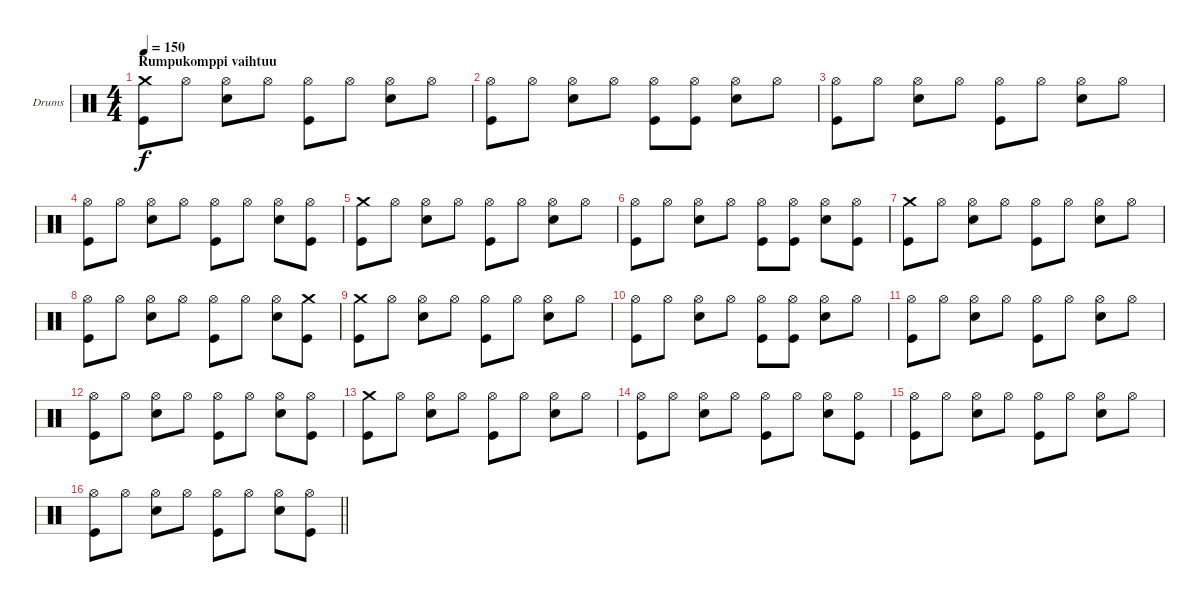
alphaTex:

\bracketExtendMode groupsimilarinstruments
\firstSystemTrackNameOrientation horizontal
\otherSystemsTrackNameOrientation horizontal
\track ("Drumkit" "Drums") {instrument percussion}
\staff {score}
\articulation defaults
\ts (4 4)
\section ("" "Rumpukomppi vaihtuu")
\tempo 150
\clef neutral
\ks c
("Crash medium (hit)" "Kick (hit)").8{dy f} "Hi-Hat (open)".8 ("Hi-Hat (open)" "Snare (hit) 2").8 "Hi-Hat (open)".8 ("Hi-Hat (open)" "Kick (hit)").8 "Hi-Hat (open)".8 ("Hi-Hat (open)" "Snare (hit) 2").8 "Hi-Hat (open)".8 |
("Hi-Hat (open)" "Kick (hit)").8 "Hi-Hat (open)".8 ("Hi-Hat (open)" "Snare (hit) 2").8 "Hi-Hat (open)".8 ("Hi-Hat (open)" "Kick (hit)").8 ("Hi-Hat (open)" "Kick (hit)").8 ("Hi-Hat (open)" "Snare (hit) 2").8 "Hi-Hat (open)".8 |
("Hi-Hat (open)" "Kick (hit)").8 "Hi-Hat (open)".8 ("Hi-Hat (open)" "Snare (hit) 2").8 "Hi-Hat (open)".8 ("Hi-Hat (open)" "Kick (hit)").8 "Hi-Hat (open)".8 ("Hi-Hat (open)" "Snare (hit) 2").8 "Hi-Hat (open)".8 |
("Hi-Hat (open)" "Kick (hit)").8 "Hi-Hat (open)".8 ("Hi-Hat (open)" "Snare (hit) 2").8 "Hi-Hat (open)".8 ("Hi-Hat (open)" "Kick (hit)").8 "Hi-Hat (open)".8 ("Hi-Hat (open)" "Snare (hit) 2").8 ("Hi-Hat (open)" "Kick (hit)").8 |
("Crash medium (hit)" "Kick (hit)").8 "Hi-Hat (open)".8 ("Hi-Hat (open)" "Snare (hit) 2").8 "Hi-Hat (open)".8 ("Hi-Hat (open)" "Kick (hit)").8 "Hi-Hat (open)".8 ("Hi-Hat (open)" "Snare (hit) 2").8 "Hi-Hat (open)".8 |
("Hi-Hat (open)" "Kick (hit)").8 "Hi-Hat (open)".8 ("Hi-Hat (open)" "Snare (hit) 2").8 "Hi-Hat (open)".8 ("Hi-Hat (open)" "Kick (hit)").8 ("Hi-Hat (open)" "Kick (hit)").8 ("Hi-Hat (open)" "Snare (hit) 2").8 ("Hi-Hat (open)" "Kick (hit)").8 |
("Crash medium (hit)" "Kick (hit)").8 "Hi-Hat (open)".8 ("Hi-Hat (open)" "Snare (hit) 2").8 "Hi-Hat (open)".8 ("Hi-Hat (open)" "Kick (hit)").8 "Hi-Hat (open)".8 ("Hi-Hat (open)" "Snare (hit) 2").8 "Hi-Hat (open)".8 |
("Hi-Hat (open)" "Kick (hit)").8 "Hi-Hat (open)".8 ("Hi-Hat (open)" "Snare (hit) 2").8 "Hi-Hat (open)".8 ("Hi-Hat (open)" "Kick (hit)").8 "Hi-Hat (open)".8 ("Hi-Hat (open)" "Snare (hit) 2").8 ("Crash medium (hit)" "Kick (hit)").8 |
("Crash medium (hit)" "Kick (hit)").8 "Hi-Hat (open)".8 ("Hi-Hat (open)" "Snare (hit) 2").8 "Hi-Hat (open)".8 ("Hi-Hat (open)" "Kick (hit)").8 "Hi-Hat (open)".8 ("Hi-Hat (open)" "Snare (hit) 2").8 "Hi-Hat (open)".8 |
("Hi-Hat (open)" "Kick (hit)").8 "Hi-Hat (open)".8 ("Hi-Hat (open)" "Snare (hit) 2").8 "Hi-Hat (open)".8 ("Hi-Hat (open)" "Kick (hit)").8 ("Hi-Hat (open)" "Kick (hit)").8 ("Hi-Hat (open)" "Snare (hit) 2").8 "Hi-Hat (open)".8 |
("Hi-Hat (open)" "Kick (hit)").8 "Hi-Hat (open)".8 ("Hi-Hat (open)" "Snare (hit) 2").8 "Hi-Hat (open)".8 ("Hi-Hat (open)" "Kick (hit)").8 "Hi-Hat (open)".8 ("Hi-Hat (open)" "Snare (hit) 2").8 "Hi-Hat (open)".8 |
("Hi-Hat (open)" "Kick (hit)").8 "Hi-Hat (open)".8 ("Hi-Hat (open)" "Snare (hit) 2").8 "Hi-Hat (open)".8 ("Hi-Hat (open)" "Kick (hit)").8 "Hi-Hat (open)".8 ("Hi-Hat (open)" "Snare (hit) 2").8 ("Hi-Hat (open)" "Kick (hit)").8 |
("Crash medium (hit)" "Kick (hit)").8 "Hi-Hat (open)".8 ("Hi-Hat (open)" "Snare (hit) 2").8 "Hi-Hat (open)".8 ("Hi-Hat (open)" "Kick (hit)").8 "Hi-Hat (open)".8 ("Hi-Hat (open)" "Snare (hit) 2").8 "Hi-Hat (open)".8 |
("Hi-Hat (open)" "Kick (hit)").8 "Hi-Hat (open)".8 ("Hi-Hat (open)" "Snare (hit) 2").8 "Hi-Hat (open)".8 ("Hi-Hat (open)" "Kick (hit)").8 "Hi-Hat (open)".8 ("Hi-Hat (open)" "Snare (hit) 2").8 ("Hi-Hat (open)" "Kick (hit)").8 |
("Hi-Hat (open)" "Kick (hit)").8 "Hi-Hat (open)".8 ("Hi-Hat (open)" "Snare (hit) 2").8 "Hi-Hat (open)".8 ("Hi-Hat (open)" "Kick (hit)").8 "Hi-Hat (open)".8 ("Hi-Hat (open)" "Snare (hit) 2").8 "Hi-Hat (open)".8 |
\barLineRight lightlight
("Hi-Hat (open)" "Kick (hit)").8 "Hi-Hat (open)".8 ("Hi-Hat (open)" "Snare (hit) 2").8 "Hi-Hat (open)".8 ("Hi-Hat (open)" "Kick (hit)").8 "Hi-Hat (open)".8 ("Hi-Hat (open)" "Snare (hit) 2").8 ("Hi-Hat (open)" "Kick (hit)").8
